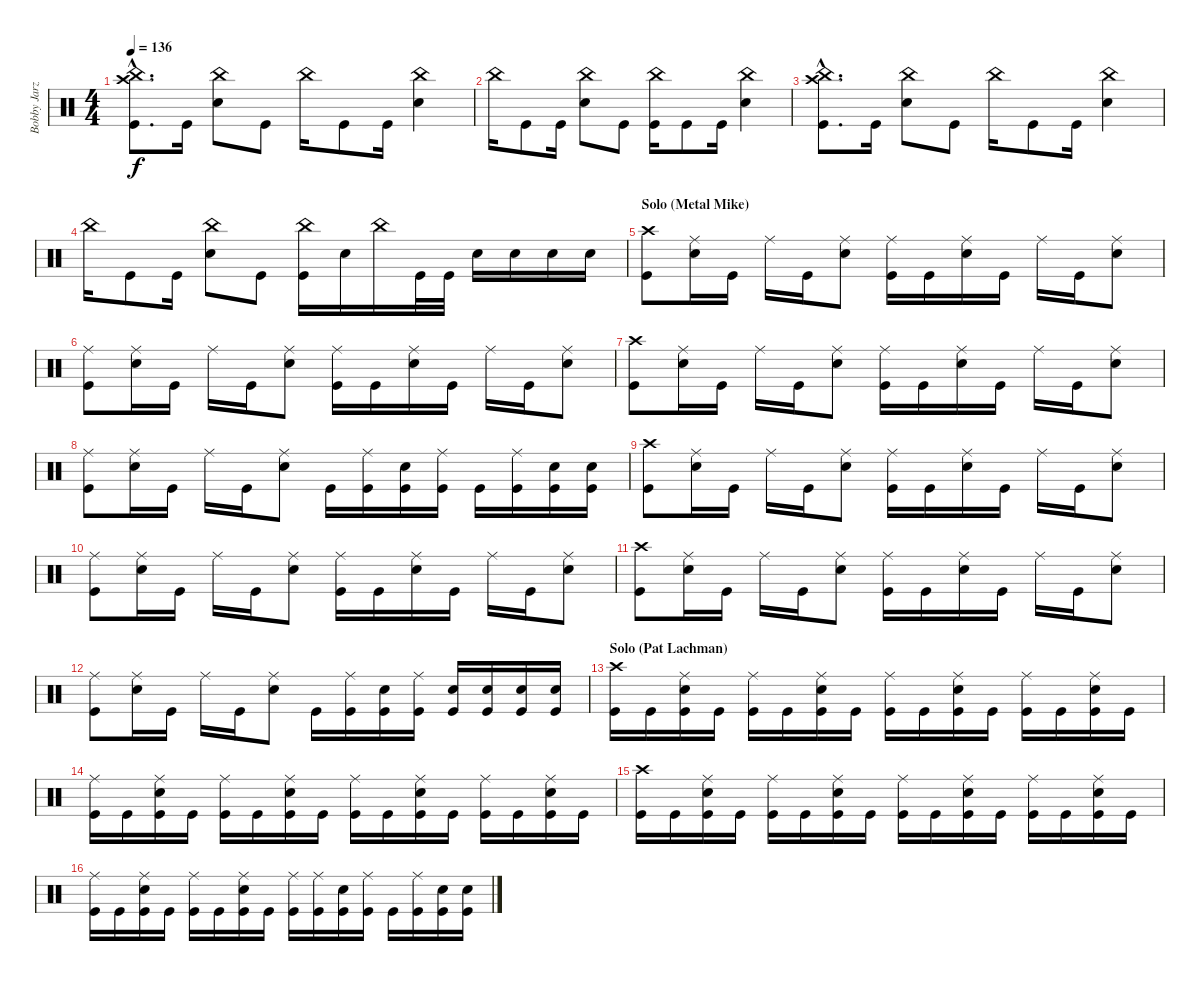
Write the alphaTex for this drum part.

\track ("Bobby Jarzombek" "Bobby Jarz") {instrument percussion}
\staff {score}
\articulation defaults
\ts (4 4)
\tempo 136
\clef neutral
\ks c
("Crash high (hit)"{hac} "China (hit)"{hac} "Kick (hit)"{hac}).8{d dy f} "Kick (hit)".16 ("China (hit)" "Electric Snare (hit)").8 "Kick (hit)".8 "China (hit)".16 "Kick (hit)".8 "Kick (hit)".16 ("China (hit)" "Electric Snare (hit)").4 |
"China (hit)".16 "Kick (hit)".8 "Kick (hit)".16 ("China (hit)" "Electric Snare (hit)").8 "Kick (hit)".8 ("China (hit)" "Kick (hit)").16 "Kick (hit)".8 "Kick (hit)".16 ("China (hit)" "Electric Snare (hit)").4 |
("Crash high (hit)"{hac} "China (hit)"{hac} "Kick (hit)"{hac}).8{d} "Kick (hit)".16 ("China (hit)" "Electric Snare (hit)").8 "Kick (hit)".8 "China (hit)".16 "Kick (hit)".8 "Kick (hit)".16 ("China (hit)" "Electric Snare (hit)").4 |
"China (hit)".16 "Kick (hit)".8 "Kick (hit)".16 ("China (hit)" "Electric Snare (hit)").8 "Kick (hit)".8 ("China (hit)" "Kick (hit)").16 "Electric Snare (hit)".16 "China (hit)".16 "Kick (hit)".32 "Kick (hit)".32 "Electric Snare (hit)".16 "Electric Snare (hit)".16 "Electric Snare (hit)".16 "Electric Snare (hit)".16 |
\section ("" "Solo (Metal Mike)")
("Crash high (hit)" "Kick (hit)").8 ("Ride (middle)" "Electric Snare (hit)").16 "Kick (hit)".16 "Ride (middle)".16 "Kick (hit)".16 ("Ride (middle)" "Electric Snare (hit)").8 ("Ride (middle)" "Kick (hit)").16 "Kick (hit)".16 ("Ride (middle)" "Electric Snare (hit)").16 "Kick (hit)".16 "Ride (middle)".16 "Kick (hit)".16 ("Ride (middle)" "Electric Snare (hit)").8 |
("Ride (middle)" "Kick (hit)").8 ("Ride (middle)" "Electric Snare (hit)").16 "Kick (hit)".16 "Ride (middle)".16 "Kick (hit)".16 ("Ride (middle)" "Electric Snare (hit)").8 ("Ride (middle)" "Kick (hit)").16 "Kick (hit)".16 ("Ride (middle)" "Electric Snare (hit)").16 "Kick (hit)".16 "Ride (middle)".16 "Kick (hit)".16 ("Ride (middle)" "Electric Snare (hit)").8 |
("Crash high (hit)" "Kick (hit)").8 ("Ride (middle)" "Electric Snare (hit)").16 "Kick (hit)".16 "Ride (middle)".16 "Kick (hit)".16 ("Ride (middle)" "Electric Snare (hit)").8 ("Ride (middle)" "Kick (hit)").16 "Kick (hit)".16 ("Ride (middle)" "Electric Snare (hit)").16 "Kick (hit)".16 "Ride (middle)".16 "Kick (hit)".16 ("Ride (middle)" "Electric Snare (hit)").8 |
("Ride (middle)" "Kick (hit)").8 ("Ride (middle)" "Electric Snare (hit)").16 "Kick (hit)".16 "Ride (middle)".16 "Kick (hit)".16 ("Ride (middle)" "Electric Snare (hit)").8 "Kick (hit)".16 ("Ride (middle)" "Kick (hit)").16 ("Electric Snare (hit)" "Kick (hit)").16 ("Ride (middle)" "Kick (hit)").16 "Kick (hit)".16 ("Ride (middle)" "Kick (hit)").16 ("Electric Snare (hit)" "Kick (hit)").16 ("Electric Snare (hit)" "Kick (hit)").16 |
("Crash high (hit)" "Kick (hit)").8 ("Ride (middle)" "Electric Snare (hit)").16 "Kick (hit)".16 "Ride (middle)".16 "Kick (hit)".16 ("Ride (middle)" "Electric Snare (hit)").8 ("Ride (middle)" "Kick (hit)").16 "Kick (hit)".16 ("Ride (middle)" "Electric Snare (hit)").16 "Kick (hit)".16 "Ride (middle)".16 "Kick (hit)".16 ("Ride (middle)" "Electric Snare (hit)").8 |
("Ride (middle)" "Kick (hit)").8 ("Ride (middle)" "Electric Snare (hit)").16 "Kick (hit)".16 "Ride (middle)".16 "Kick (hit)".16 ("Ride (middle)" "Electric Snare (hit)").8 ("Ride (middle)" "Kick (hit)").16 "Kick (hit)".16 ("Ride (middle)" "Electric Snare (hit)").16 "Kick (hit)".16 "Ride (middle)".16 "Kick (hit)".16 ("Ride (middle)" "Electric Snare (hit)").8 |
("Crash high (hit)" "Kick (hit)").8 ("Ride (middle)" "Electric Snare (hit)").16 "Kick (hit)".16 "Ride (middle)".16 "Kick (hit)".16 ("Ride (middle)" "Electric Snare (hit)").8 ("Ride (middle)" "Kick (hit)").16 "Kick (hit)".16 ("Ride (middle)" "Electric Snare (hit)").16 "Kick (hit)".16 "Ride (middle)".16 "Kick (hit)".16 ("Ride (middle)" "Electric Snare (hit)").8 |
("Ride (middle)" "Kick (hit)").8 ("Ride (middle)" "Electric Snare (hit)").16 "Kick (hit)".16 "Ride (middle)".16 "Kick (hit)".16 ("Ride (middle)" "Electric Snare (hit)").8 "Kick (hit)".16 ("Ride (middle)" "Kick (hit)").16 ("Electric Snare (hit)" "Kick (hit)").16 ("Ride (middle)" "Kick (hit)").16 ("Electric Snare (hit)" "Kick (hit)").16 ("Electric Snare (hit)" "Kick (hit)").16 ("Electric Snare (hit)" "Kick (hit)").16 ("Electric Snare (hit)" "Kick (hit)").16 |
\section ("" "Solo (Pat Lachman)")
("Crash high (hit)" "Kick (hit)").16 "Kick (hit)".16 ("Ride (middle)" "Electric Snare (hit)" "Kick (hit)").16 "Kick (hit)".16 ("Ride (middle)" "Kick (hit)").16 "Kick (hit)".16 ("Ride (middle)" "Electric Snare (hit)" "Kick (hit)").16 "Kick (hit)".16 ("Ride (middle)" "Kick (hit)").16 "Kick (hit)".16 ("Ride (middle)" "Electric Snare (hit)" "Kick (hit)").16 "Kick (hit)".16 ("Ride (middle)" "Kick (hit)").16 "Kick (hit)".16 ("Ride (middle)" "Electric Snare (hit)" "Kick (hit)").16 "Kick (hit)".16 |
("Ride (middle)" "Kick (hit)").16 "Kick (hit)".16 ("Ride (middle)" "Electric Snare (hit)" "Kick (hit)").16 "Kick (hit)".16 ("Ride (middle)" "Kick (hit)").16 "Kick (hit)".16 ("Ride (middle)" "Electric Snare (hit)" "Kick (hit)").16 "Kick (hit)".16 ("Ride (middle)" "Kick (hit)").16 "Kick (hit)".16 ("Ride (middle)" "Electric Snare (hit)" "Kick (hit)").16 "Kick (hit)".16 ("Ride (middle)" "Kick (hit)").16 "Kick (hit)".16 ("Ride (middle)" "Electric Snare (hit)" "Kick (hit)").16 "Kick (hit)".16 |
("Crash high (hit)" "Kick (hit)").16 "Kick (hit)".16 ("Ride (middle)" "Electric Snare (hit)" "Kick (hit)").16 "Kick (hit)".16 ("Ride (middle)" "Kick (hit)").16 "Kick (hit)".16 ("Ride (middle)" "Electric Snare (hit)" "Kick (hit)").16 "Kick (hit)".16 ("Ride (middle)" "Kick (hit)").16 "Kick (hit)".16 ("Ride (middle)" "Electric Snare (hit)" "Kick (hit)").16 "Kick (hit)".16 ("Ride (middle)" "Kick (hit)").16 "Kick (hit)".16 ("Ride (middle)" "Electric Snare (hit)" "Kick (hit)").16 "Kick (hit)".16 |
("Ride (middle)" "Kick (hit)").16 "Kick (hit)".16 ("Ride (middle)" "Electric Snare (hit)" "Kick (hit)").16 "Kick (hit)".16 ("Ride (middle)" "Kick (hit)").16 "Kick (hit)".16 ("Ride (middle)" "Electric Snare (hit)" "Kick (hit)").16 "Kick (hit)".16 ("Ride (middle)" "Kick (hit)").16 ("Ride (middle)" "Kick (hit)").16 ("Electric Snare (hit)" "Kick (hit)").16 ("Ride (middle)" "Kick (hit)").16 "Kick (hit)".16 ("Ride (middle)" "Kick (hit)").16 ("Electric Snare (hit)" "Kick (hit)").16 ("Electric Snare (hit)" "Kick (hit)").16
